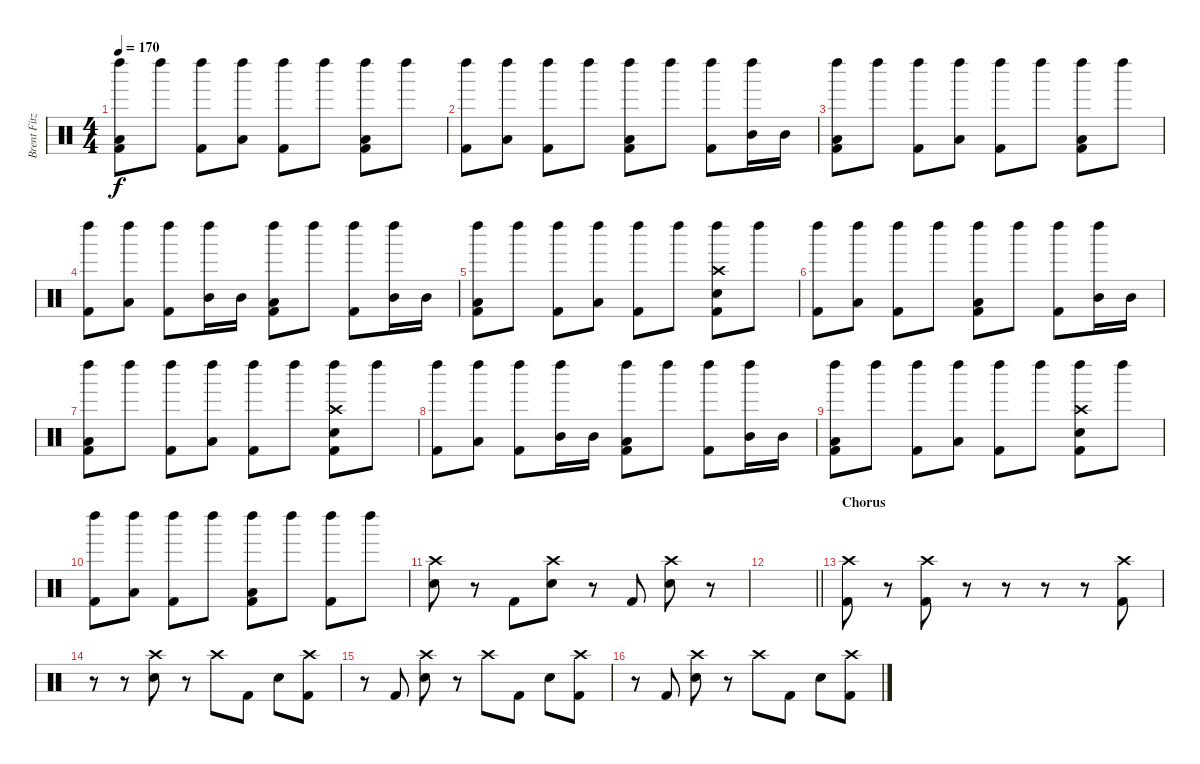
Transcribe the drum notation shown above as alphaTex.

\track ("Brent Fitz" "Brent Fitz") {instrument percussion}
\staff {score}
\articulation defaults
\ts (4 4)
\tempo 170
\clef neutral
\ks c
("Left Maraca (hit)" "Low Tom (hit)" "Kick (hit) 2").8{dy f} "Left Maraca (hit)".8 ("Left Maraca (hit)" "Kick (hit) 2").8 ("Left Maraca (hit)" "Low Tom (hit)").8 ("Left Maraca (hit)" "Kick (hit) 2").8 "Left Maraca (hit)".8 ("Left Maraca (hit)" "Low Tom (hit)" "Kick (hit) 2").8 "Left Maraca (hit)".8 |
("Left Maraca (hit)" "Kick (hit) 2").8 ("Left Maraca (hit)" "Low Tom (hit)").8 ("Left Maraca (hit)" "Kick (hit) 2").8 "Left Maraca (hit)".8 ("Left Maraca (hit)" "Low Tom (hit)" "Kick (hit) 2").8 "Left Maraca (hit)".8 ("Left Maraca (hit)" "Kick (hit) 2").8 ("Left Maraca (hit)" "Mid Tom (hit)").16 "Mid Tom (hit)".16 |
("Left Maraca (hit)" "Low Tom (hit)" "Kick (hit) 2").8 "Left Maraca (hit)".8 ("Left Maraca (hit)" "Kick (hit) 2").8 ("Left Maraca (hit)" "Low Tom (hit)").8 ("Left Maraca (hit)" "Kick (hit) 2").8 "Left Maraca (hit)".8 ("Left Maraca (hit)" "Low Tom (hit)" "Kick (hit) 2").8 "Left Maraca (hit)".8 |
("Left Maraca (hit)" "Kick (hit) 2").8 ("Left Maraca (hit)" "Low Tom (hit)").8 ("Left Maraca (hit)" "Kick (hit) 2").8 ("Left Maraca (hit)" "Mid Tom (hit)").16 "Mid Tom (hit)".16 ("Left Maraca (hit)" "Low Tom (hit)" "Kick (hit) 2").8 "Left Maraca (hit)".8 ("Left Maraca (hit)" "Kick (hit) 2").8 ("Left Maraca (hit)" "Mid Tom (hit)").16 "Mid Tom (hit)".16 |
("Left Maraca (hit)" "Low Tom (hit)" "Kick (hit) 2").8 "Left Maraca (hit)".8 ("Left Maraca (hit)" "Kick (hit) 2").8 ("Left Maraca (hit)" "Low Tom (hit)").8 ("Left Maraca (hit)" "Kick (hit) 2").8 "Left Maraca (hit)".8 ("Left Maraca (hit)" "Crash high (hit)" "Electric Snare (hit)" "Kick (hit) 2").8 "Left Maraca (hit)".8 |
("Left Maraca (hit)" "Kick (hit) 2").8 ("Left Maraca (hit)" "Low Tom (hit)").8 ("Left Maraca (hit)" "Kick (hit) 2").8 "Left Maraca (hit)".8 ("Left Maraca (hit)" "Low Tom (hit)" "Kick (hit) 2").8 "Left Maraca (hit)".8 ("Left Maraca (hit)" "Kick (hit) 2").8 ("Left Maraca (hit)" "Mid Tom (hit)").16 "Mid Tom (hit)".16 |
("Left Maraca (hit)" "Low Tom (hit)" "Kick (hit) 2").8 "Left Maraca (hit)".8 ("Left Maraca (hit)" "Kick (hit) 2").8 ("Left Maraca (hit)" "Low Tom (hit)").8 ("Left Maraca (hit)" "Kick (hit) 2").8 "Left Maraca (hit)".8 ("Left Maraca (hit)" "Crash high (hit)" "Electric Snare (hit)" "Kick (hit) 2").8 "Left Maraca (hit)".8 |
("Left Maraca (hit)" "Kick (hit) 2").8 ("Left Maraca (hit)" "Low Tom (hit)").8 ("Left Maraca (hit)" "Kick (hit) 2").8 ("Left Maraca (hit)" "Mid Tom (hit)").16 "Mid Tom (hit)".16 ("Left Maraca (hit)" "Low Tom (hit)" "Kick (hit) 2").8 "Left Maraca (hit)".8 ("Left Maraca (hit)" "Kick (hit) 2").8 ("Left Maraca (hit)" "Mid Tom (hit)").16 "Mid Tom (hit)".16 |
("Left Maraca (hit)" "Low Tom (hit)" "Kick (hit) 2").8 "Left Maraca (hit)".8 ("Left Maraca (hit)" "Kick (hit) 2").8 ("Left Maraca (hit)" "Low Tom (hit)").8 ("Left Maraca (hit)" "Kick (hit) 2").8 "Left Maraca (hit)".8 ("Left Maraca (hit)" "Crash high (hit)" "Electric Snare (hit)" "Kick (hit) 2").8 "Left Maraca (hit)".8 |
("Left Maraca (hit)" "Kick (hit) 2").8 ("Left Maraca (hit)" "Low Tom (hit)").8 ("Left Maraca (hit)" "Kick (hit) 2").8 "Left Maraca (hit)".8 ("Left Maraca (hit)" "Low Tom (hit)" "Kick (hit) 2").8 "Left Maraca (hit)".8 ("Left Maraca (hit)" "Kick (hit) 2").8 "Left Maraca (hit)".8 |
("Crash high (hit)" "Electric Snare (hit)").8 r.8 "Kick (hit) 2".8 ("Crash high (hit)" "Electric Snare (hit)").8 r.8 "Kick (hit) 2".8 ("Crash high (hit)" "Electric Snare (hit)").8 r.8 |
\barLineRight lightlight
|
\section ("" "Chorus")
("Crash high (hit)" "Kick (hit) 2").8 r.8 ("Crash high (hit)" "Kick (hit) 2").8 r.8 r.8 r.8 r.8 ("Crash high (hit)" "Kick (hit) 2").8 |
r.8 r.8 ("Crash high (hit)" "Electric Snare (hit)").8 r.8 "Crash high (hit)".8 "Kick (hit) 2".8 "Electric Snare (hit)".8 ("Crash high (hit)" "Kick (hit) 2").8 |
r.8 "Kick (hit) 2".8 ("Crash high (hit)" "Electric Snare (hit)").8 r.8 "Crash high (hit)".8 "Kick (hit) 2".8 "Electric Snare (hit)".8 ("Crash high (hit)" "Kick (hit) 2").8 |
r.8 "Kick (hit) 2".8 ("Crash high (hit)" "Electric Snare (hit)").8 r.8 "Crash high (hit)".8 "Kick (hit) 2".8 "Electric Snare (hit)".8 ("Crash high (hit)" "Kick (hit) 2").8
